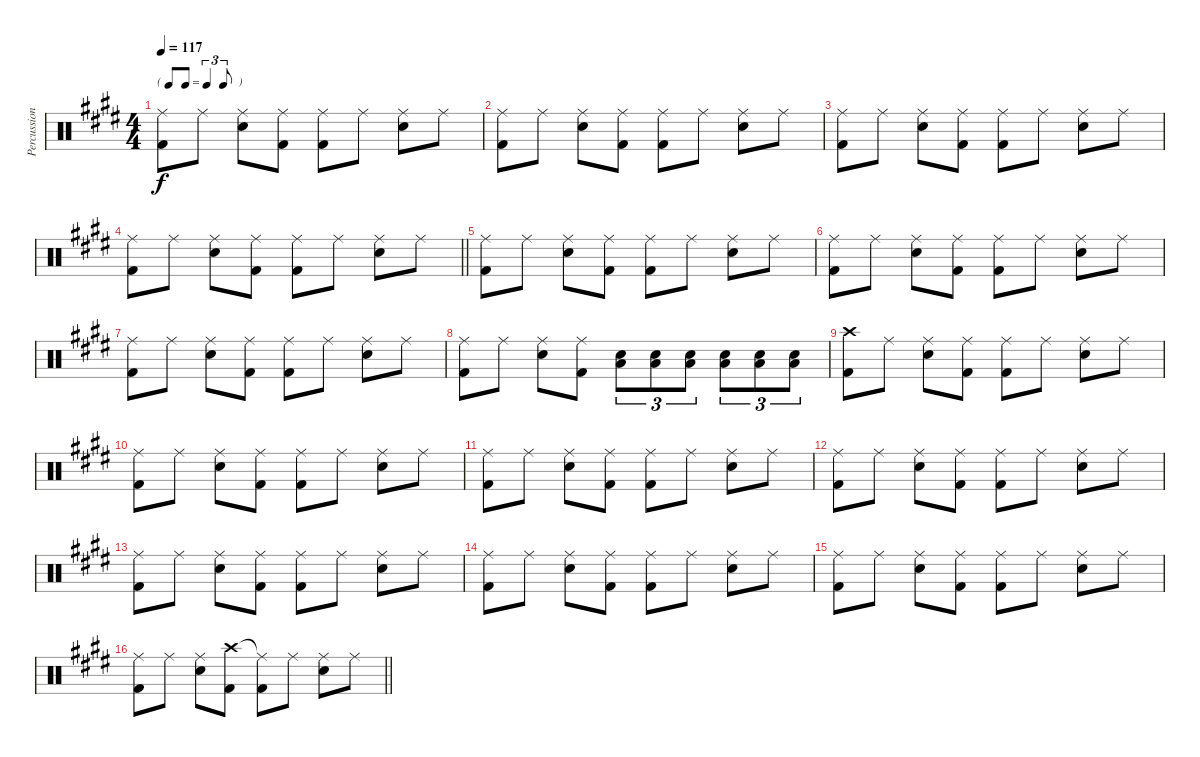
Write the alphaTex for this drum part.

\track ("Percussion" "Percussion") {instrument percussion}
\staff {score}
\articulation defaults
\ts (4 4)
\tf triplet8th
\tempo 117
\clef neutral
\ks e
("Ride (middle)" "Kick (hit) 2").8{dy f} "Ride (middle)".8 ("Ride (middle)" "Snare (hit) 2").8 ("Ride (middle)" "Kick (hit) 2").8 ("Ride (middle)" "Kick (hit) 2").8 "Ride (middle)".8 ("Ride (middle)" "Snare (hit) 2").8 "Ride (middle)".8 |
("Ride (middle)" "Kick (hit) 2").8 "Ride (middle)".8 ("Ride (middle)" "Snare (hit) 2").8 ("Ride (middle)" "Kick (hit) 2").8 ("Ride (middle)" "Kick (hit) 2").8 "Ride (middle)".8 ("Ride (middle)" "Snare (hit) 2").8 "Ride (middle)".8 |
("Ride (middle)" "Kick (hit) 2").8 "Ride (middle)".8 ("Ride (middle)" "Snare (hit) 2").8 ("Ride (middle)" "Kick (hit) 2").8 ("Ride (middle)" "Kick (hit) 2").8 "Ride (middle)".8 ("Ride (middle)" "Snare (hit) 2").8 "Ride (middle)".8 |
\barLineRight lightlight
("Ride (middle)" "Kick (hit) 2").8 "Ride (middle)".8 ("Ride (middle)" "Snare (hit) 2").8 ("Ride (middle)" "Kick (hit) 2").8 ("Ride (middle)" "Kick (hit) 2").8 "Ride (middle)".8 ("Ride (middle)" "Snare (hit) 2").8 "Ride (middle)".8 |
("Ride (middle)" "Kick (hit) 2").8 "Ride (middle)".8 ("Ride (middle)" "Snare (hit) 2").8 ("Ride (middle)" "Kick (hit) 2").8 ("Ride (middle)" "Kick (hit) 2").8 "Ride (middle)".8 ("Ride (middle)" "Snare (hit) 2").8 "Ride (middle)".8 |
("Ride (middle)" "Kick (hit) 2").8 "Ride (middle)".8 ("Ride (middle)" "Snare (hit) 2").8 ("Ride (middle)" "Kick (hit) 2").8 ("Ride (middle)" "Kick (hit) 2").8 "Ride (middle)".8 ("Ride (middle)" "Snare (hit) 2").8 "Ride (middle)".8 |
("Ride (middle)" "Kick (hit) 2").8 "Ride (middle)".8 ("Ride (middle)" "Snare (hit) 2").8 ("Ride (middle)" "Kick (hit) 2").8 ("Ride (middle)" "Kick (hit) 2").8 "Ride (middle)".8 ("Ride (middle)" "Snare (hit) 2").8 "Ride (middle)".8 |
("Ride (middle)" "Kick (hit) 2").8 "Ride (middle)".8 ("Ride (middle)" "Snare (hit) 2").8 ("Ride (middle)" "Kick (hit) 2").8 ("Snare (hit) 2" "Low Floor Tom (hit)").8{tu (3 2)} ("Snare (hit) 2" "Low Floor Tom (hit)").8{tu (3 2)} ("Snare (hit) 2" "Low Floor Tom (hit)").8{tu (3 2)} ("Snare (hit) 2" "Low Floor Tom (hit)").8{tu (3 2)} ("Snare (hit) 2" "Low Floor Tom (hit)").8{tu (3 2)} ("Snare (hit) 2" "Low Floor Tom (hit)").8{tu (3 2)} |
("Crash high (hit)" "Kick (hit) 2").8 "Ride (middle)".8 ("Ride (middle)" "Snare (hit) 2").8 ("Ride (middle)" "Kick (hit) 2").8 ("Ride (middle)" "Kick (hit) 2").8 "Ride (middle)".8 ("Ride (middle)" "Snare (hit) 2").8 "Ride (middle)".8 |
("Ride (middle)" "Kick (hit) 2").8 "Ride (middle)".8 ("Ride (middle)" "Snare (hit) 2").8 ("Ride (middle)" "Kick (hit) 2").8 ("Ride (middle)" "Kick (hit) 2").8 "Ride (middle)".8 ("Ride (middle)" "Snare (hit) 2").8 "Ride (middle)".8 |
("Ride (middle)" "Kick (hit) 2").8 "Ride (middle)".8 ("Ride (middle)" "Snare (hit) 2").8 ("Ride (middle)" "Kick (hit) 2").8 ("Ride (middle)" "Kick (hit) 2").8 "Ride (middle)".8 ("Ride (middle)" "Snare (hit) 2").8 "Ride (middle)".8 |
("Ride (middle)" "Kick (hit) 2").8 "Ride (middle)".8 ("Ride (middle)" "Snare (hit) 2").8 ("Ride (middle)" "Kick (hit) 2").8 ("Ride (middle)" "Kick (hit) 2").8 "Ride (middle)".8 ("Ride (middle)" "Snare (hit) 2").8 "Ride (middle)".8 |
("Ride (middle)" "Kick (hit) 2").8 "Ride (middle)".8 ("Ride (middle)" "Snare (hit) 2").8 ("Ride (middle)" "Kick (hit) 2").8 ("Ride (middle)" "Kick (hit) 2").8 "Ride (middle)".8 ("Ride (middle)" "Snare (hit) 2").8 "Ride (middle)".8 |
("Ride (middle)" "Kick (hit) 2").8 "Ride (middle)".8 ("Ride (middle)" "Snare (hit) 2").8 ("Ride (middle)" "Kick (hit) 2").8 ("Ride (middle)" "Kick (hit) 2").8 "Ride (middle)".8 ("Ride (middle)" "Snare (hit) 2").8 "Ride (middle)".8 |
("Ride (middle)" "Kick (hit) 2").8 "Ride (middle)".8 ("Ride (middle)" "Snare (hit) 2").8 ("Ride (middle)" "Kick (hit) 2").8 ("Ride (middle)" "Kick (hit) 2").8 "Ride (middle)".8 ("Ride (middle)" "Snare (hit) 2").8 "Ride (middle)".8 |
\barLineRight lightlight
("Ride (middle)" "Kick (hit) 2").8 "Ride (middle)".8 ("Ride (middle)" "Snare (hit) 2").8 ("Crash high (hit)" "Kick (hit) 2").8 ("Ride (middle)"{t} "Kick (hit) 2").8 "Ride (middle)".8 ("Ride (middle)" "Snare (hit) 2").8 "Ride (middle)".8
